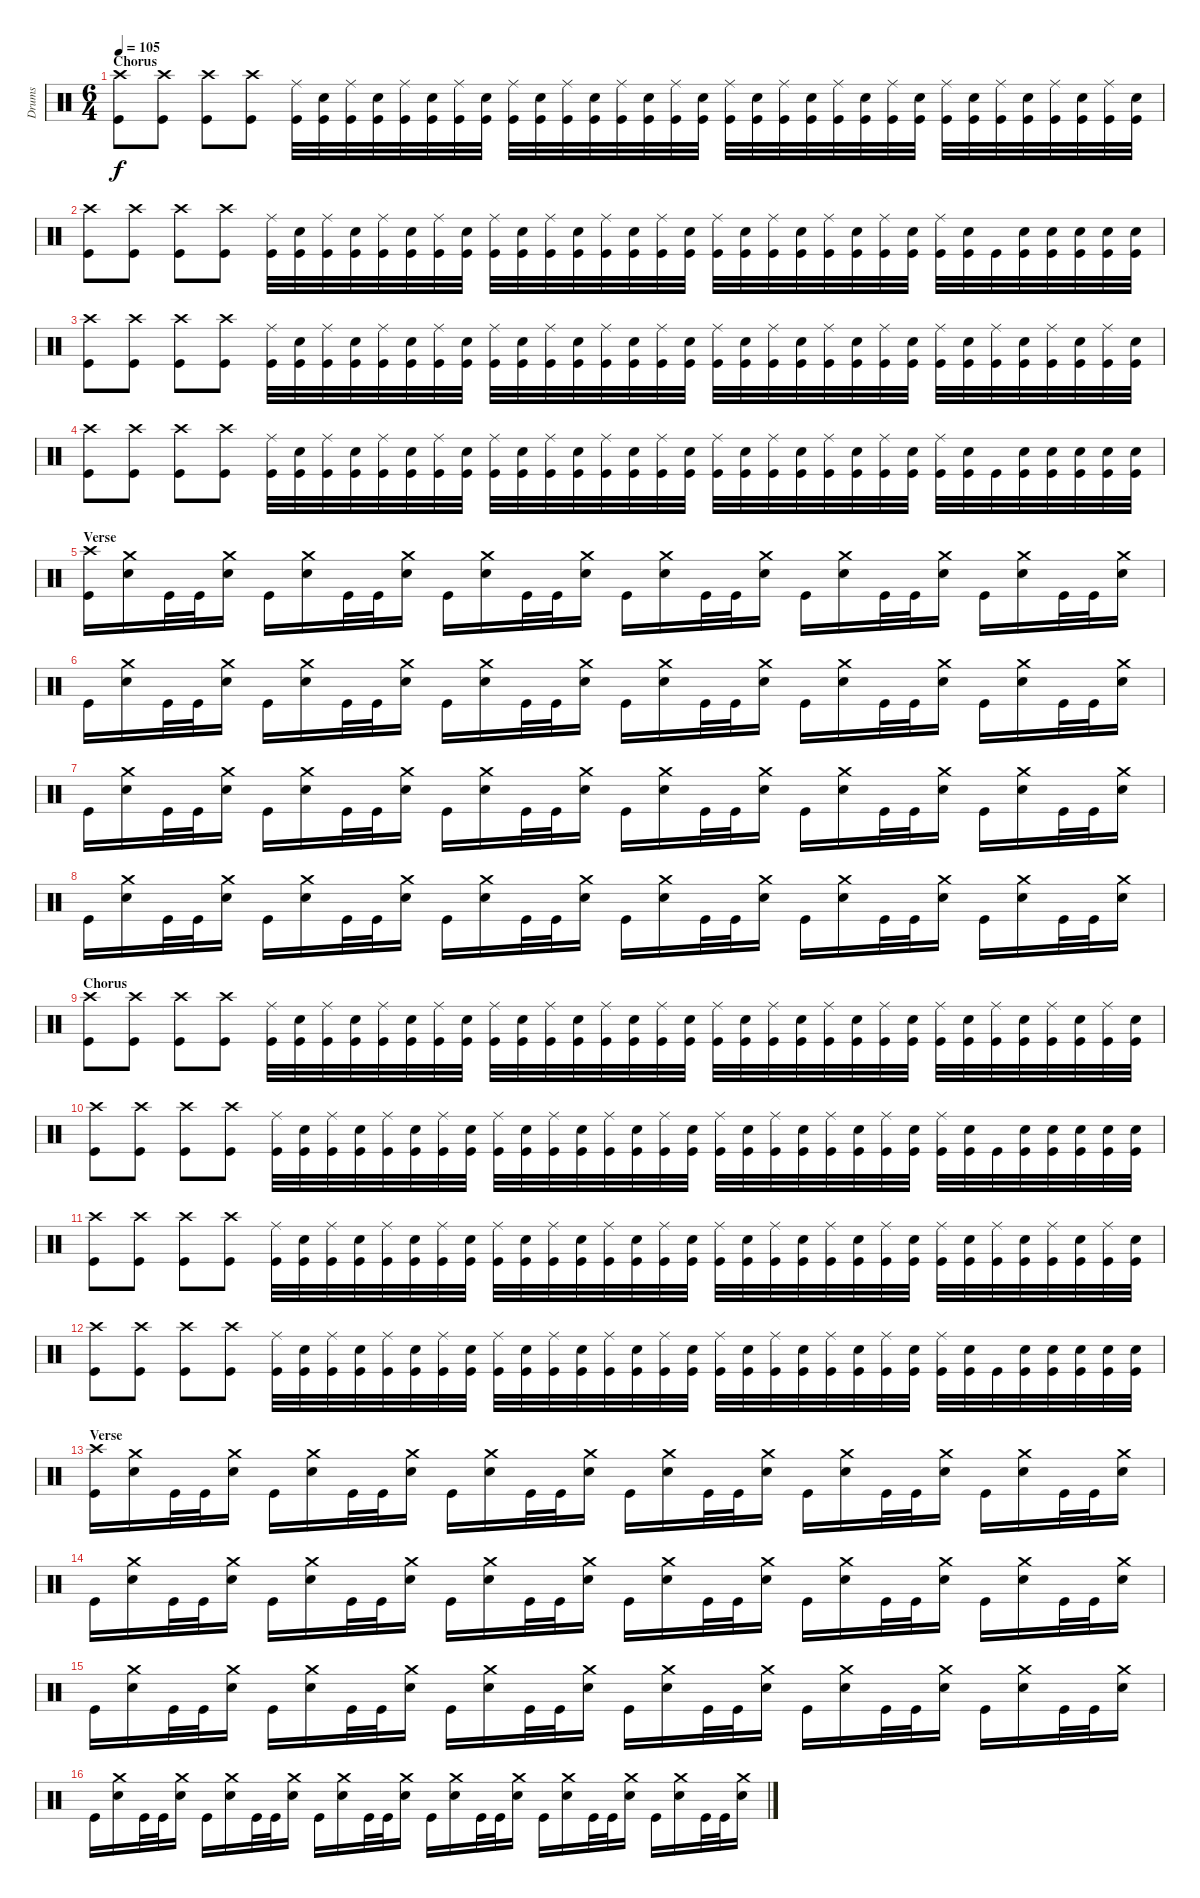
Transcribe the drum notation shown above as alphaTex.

\track ("Drums" "Drums") {instrument percussion}
\staff {score}
\articulation defaults
\ts (6 4)
\section ("" "Chorus")
\tempo 105
\clef neutral
\ks c
("Crash high (hit)" "Kick (hit)").8{dy f} ("Crash high (hit)" "Kick (hit)").8 ("Crash high (hit)" "Kick (hit)").8 ("Crash high (hit)" "Kick (hit)").8 ("Ride (middle)" "Kick (hit)").32 ("Electric Snare (hit)" "Kick (hit)").32 ("Ride (middle)" "Kick (hit)").32 ("Electric Snare (hit)" "Kick (hit)").32 ("Ride (middle)" "Kick (hit)").32 ("Electric Snare (hit)" "Kick (hit)").32 ("Ride (middle)" "Kick (hit)").32 ("Electric Snare (hit)" "Kick (hit)").32 ("Ride (middle)" "Kick (hit)").32 ("Electric Snare (hit)" "Kick (hit)").32 ("Ride (middle)" "Kick (hit)").32 ("Electric Snare (hit)" "Kick (hit)").32 ("Ride (middle)" "Kick (hit)").32 ("Electric Snare (hit)" "Kick (hit)").32 ("Ride (middle)" "Kick (hit)").32 ("Electric Snare (hit)" "Kick (hit)").32 ("Ride (middle)" "Kick (hit)").32 ("Electric Snare (hit)" "Kick (hit)").32 ("Ride (middle)" "Kick (hit)").32 ("Electric Snare (hit)" "Kick (hit)").32 ("Ride (middle)" "Kick (hit)").32 ("Electric Snare (hit)" "Kick (hit)").32 ("Ride (middle)" "Kick (hit)").32 ("Electric Snare (hit)" "Kick (hit)").32 ("Ride (middle)" "Kick (hit)").32 ("Electric Snare (hit)" "Kick (hit)").32 ("Ride (middle)" "Kick (hit)").32 ("Electric Snare (hit)" "Kick (hit)").32 ("Ride (middle)" "Kick (hit)").32 ("Electric Snare (hit)" "Kick (hit)").32 ("Ride (middle)" "Kick (hit)").32 ("Electric Snare (hit)" "Kick (hit)").32 |
("Crash high (hit)" "Kick (hit)").8 ("Crash high (hit)" "Kick (hit)").8 ("Crash high (hit)" "Kick (hit)").8 ("Crash high (hit)" "Kick (hit)").8 ("Ride (middle)" "Kick (hit)").32 ("Electric Snare (hit)" "Kick (hit)").32 ("Ride (middle)" "Kick (hit)").32 ("Electric Snare (hit)" "Kick (hit)").32 ("Ride (middle)" "Kick (hit)").32 ("Electric Snare (hit)" "Kick (hit)").32 ("Ride (middle)" "Kick (hit)").32 ("Electric Snare (hit)" "Kick (hit)").32 ("Ride (middle)" "Kick (hit)").32 ("Electric Snare (hit)" "Kick (hit)").32 ("Ride (middle)" "Kick (hit)").32 ("Electric Snare (hit)" "Kick (hit)").32 ("Ride (middle)" "Kick (hit)").32 ("Electric Snare (hit)" "Kick (hit)").32 ("Ride (middle)" "Kick (hit)").32 ("Electric Snare (hit)" "Kick (hit)").32 ("Ride (middle)" "Kick (hit)").32 ("Electric Snare (hit)" "Kick (hit)").32 ("Ride (middle)" "Kick (hit)").32 ("Electric Snare (hit)" "Kick (hit)").32 ("Ride (middle)" "Kick (hit)").32 ("Electric Snare (hit)" "Kick (hit)").32 ("Ride (middle)" "Kick (hit)").32 ("Electric Snare (hit)" "Kick (hit)").32 ("Ride (middle)" "Kick (hit)").32 ("Electric Snare (hit)" "Kick (hit)").32 "Kick (hit)".32 ("Electric Snare (hit)" "Kick (hit)").32 ("Electric Snare (hit)" "Kick (hit)").32 ("Electric Snare (hit)" "Kick (hit)").32 ("Electric Snare (hit)" "Kick (hit)").32 ("Electric Snare (hit)" "Kick (hit)").32 |
("Crash high (hit)" "Kick (hit)").8 ("Crash high (hit)" "Kick (hit)").8 ("Crash high (hit)" "Kick (hit)").8 ("Crash high (hit)" "Kick (hit)").8 ("Ride (middle)" "Kick (hit)").32 ("Electric Snare (hit)" "Kick (hit)").32 ("Ride (middle)" "Kick (hit)").32 ("Electric Snare (hit)" "Kick (hit)").32 ("Ride (middle)" "Kick (hit)").32 ("Electric Snare (hit)" "Kick (hit)").32 ("Ride (middle)" "Kick (hit)").32 ("Electric Snare (hit)" "Kick (hit)").32 ("Ride (middle)" "Kick (hit)").32 ("Electric Snare (hit)" "Kick (hit)").32 ("Ride (middle)" "Kick (hit)").32 ("Electric Snare (hit)" "Kick (hit)").32 ("Ride (middle)" "Kick (hit)").32 ("Electric Snare (hit)" "Kick (hit)").32 ("Ride (middle)" "Kick (hit)").32 ("Electric Snare (hit)" "Kick (hit)").32 ("Ride (middle)" "Kick (hit)").32 ("Electric Snare (hit)" "Kick (hit)").32 ("Ride (middle)" "Kick (hit)").32 ("Electric Snare (hit)" "Kick (hit)").32 ("Ride (middle)" "Kick (hit)").32 ("Electric Snare (hit)" "Kick (hit)").32 ("Ride (middle)" "Kick (hit)").32 ("Electric Snare (hit)" "Kick (hit)").32 ("Ride (middle)" "Kick (hit)").32 ("Electric Snare (hit)" "Kick (hit)").32 ("Ride (middle)" "Kick (hit)").32 ("Electric Snare (hit)" "Kick (hit)").32 ("Ride (middle)" "Kick (hit)").32 ("Electric Snare (hit)" "Kick (hit)").32 ("Ride (middle)" "Kick (hit)").32 ("Electric Snare (hit)" "Kick (hit)").32 |
("Crash high (hit)" "Kick (hit)").8 ("Crash high (hit)" "Kick (hit)").8 ("Crash high (hit)" "Kick (hit)").8 ("Crash high (hit)" "Kick (hit)").8 ("Ride (middle)" "Kick (hit)").32 ("Electric Snare (hit)" "Kick (hit)").32 ("Ride (middle)" "Kick (hit)").32 ("Electric Snare (hit)" "Kick (hit)").32 ("Ride (middle)" "Kick (hit)").32 ("Electric Snare (hit)" "Kick (hit)").32 ("Ride (middle)" "Kick (hit)").32 ("Electric Snare (hit)" "Kick (hit)").32 ("Ride (middle)" "Kick (hit)").32 ("Electric Snare (hit)" "Kick (hit)").32 ("Ride (middle)" "Kick (hit)").32 ("Electric Snare (hit)" "Kick (hit)").32 ("Ride (middle)" "Kick (hit)").32 ("Electric Snare (hit)" "Kick (hit)").32 ("Ride (middle)" "Kick (hit)").32 ("Electric Snare (hit)" "Kick (hit)").32 ("Ride (middle)" "Kick (hit)").32 ("Electric Snare (hit)" "Kick (hit)").32 ("Ride (middle)" "Kick (hit)").32 ("Electric Snare (hit)" "Kick (hit)").32 ("Ride (middle)" "Kick (hit)").32 ("Electric Snare (hit)" "Kick (hit)").32 ("Ride (middle)" "Kick (hit)").32 ("Electric Snare (hit)" "Kick (hit)").32 ("Ride (middle)" "Kick (hit)").32 ("Electric Snare (hit)" "Kick (hit)").32 "Kick (hit)".32 ("Electric Snare (hit)" "Kick (hit)").32 ("Electric Snare (hit)" "Kick (hit)").32 ("Electric Snare (hit)" "Kick (hit)").32 ("Electric Snare (hit)" "Kick (hit)").32 ("Electric Snare (hit)" "Kick (hit)").32 |
\section ("" "Verse ")
("Crash high (hit)" "Kick (hit)").16 ("Crash medium (hit)" "Electric Snare (hit)").16 "Kick (hit)".32 "Kick (hit)".32 ("Crash medium (hit)" "Electric Snare (hit)").16 "Kick (hit)".16 ("Crash medium (hit)" "Electric Snare (hit)").16 "Kick (hit)".32 "Kick (hit)".32 ("Crash medium (hit)" "Electric Snare (hit)").16 "Kick (hit)".16 ("Crash medium (hit)" "Electric Snare (hit)").16 "Kick (hit)".32 "Kick (hit)".32 ("Crash medium (hit)" "Electric Snare (hit)").16 "Kick (hit)".16 ("Crash medium (hit)" "Electric Snare (hit)").16 "Kick (hit)".32 "Kick (hit)".32 ("Crash medium (hit)" "Electric Snare (hit)").16 "Kick (hit)".16 ("Crash medium (hit)" "Electric Snare (hit)").16 "Kick (hit)".32 "Kick (hit)".32 ("Crash medium (hit)" "Electric Snare (hit)").16 "Kick (hit)".16 ("Crash medium (hit)" "Electric Snare (hit)").16 "Kick (hit)".32 "Kick (hit)".32 ("Crash medium (hit)" "Electric Snare (hit)").16 |
"Kick (hit)".16 ("Crash medium (hit)" "Electric Snare (hit)").16 "Kick (hit)".32 "Kick (hit)".32 ("Crash medium (hit)" "Electric Snare (hit)").16 "Kick (hit)".16 ("Crash medium (hit)" "Electric Snare (hit)").16 "Kick (hit)".32 "Kick (hit)".32 ("Crash medium (hit)" "Electric Snare (hit)").16 "Kick (hit)".16 ("Crash medium (hit)" "Electric Snare (hit)").16 "Kick (hit)".32 "Kick (hit)".32 ("Crash medium (hit)" "Electric Snare (hit)").16 "Kick (hit)".16 ("Crash medium (hit)" "Electric Snare (hit)").16 "Kick (hit)".32 "Kick (hit)".32 ("Crash medium (hit)" "Electric Snare (hit)").16 "Kick (hit)".16 ("Crash medium (hit)" "Electric Snare (hit)").16 "Kick (hit)".32 "Kick (hit)".32 ("Crash medium (hit)" "Electric Snare (hit)").16 "Kick (hit)".16 ("Crash medium (hit)" "Electric Snare (hit)").16 "Kick (hit)".32 "Kick (hit)".32 ("Crash medium (hit)" "Electric Snare (hit)").16 |
"Kick (hit)".16 ("Crash medium (hit)" "Electric Snare (hit)").16 "Kick (hit)".32 "Kick (hit)".32 ("Crash medium (hit)" "Electric Snare (hit)").16 "Kick (hit)".16 ("Crash medium (hit)" "Electric Snare (hit)").16 "Kick (hit)".32 "Kick (hit)".32 ("Crash medium (hit)" "Electric Snare (hit)").16 "Kick (hit)".16 ("Crash medium (hit)" "Electric Snare (hit)").16 "Kick (hit)".32 "Kick (hit)".32 ("Crash medium (hit)" "Electric Snare (hit)").16 "Kick (hit)".16 ("Crash medium (hit)" "Electric Snare (hit)").16 "Kick (hit)".32 "Kick (hit)".32 ("Crash medium (hit)" "Electric Snare (hit)").16 "Kick (hit)".16 ("Crash medium (hit)" "Electric Snare (hit)").16 "Kick (hit)".32 "Kick (hit)".32 ("Crash medium (hit)" "Electric Snare (hit)").16 "Kick (hit)".16 ("Crash medium (hit)" "Electric Snare (hit)").16 "Kick (hit)".32 "Kick (hit)".32 ("Crash medium (hit)" "Electric Snare (hit)").16 |
"Kick (hit)".16 ("Crash medium (hit)" "Electric Snare (hit)").16 "Kick (hit)".32 "Kick (hit)".32 ("Crash medium (hit)" "Electric Snare (hit)").16 "Kick (hit)".16 ("Crash medium (hit)" "Electric Snare (hit)").16 "Kick (hit)".32 "Kick (hit)".32 ("Crash medium (hit)" "Electric Snare (hit)").16 "Kick (hit)".16 ("Crash medium (hit)" "Electric Snare (hit)").16 "Kick (hit)".32 "Kick (hit)".32 ("Crash medium (hit)" "Electric Snare (hit)").16 "Kick (hit)".16 ("Crash medium (hit)" "Electric Snare (hit)").16 "Kick (hit)".32 "Kick (hit)".32 ("Crash medium (hit)" "Electric Snare (hit)").16 "Kick (hit)".16 ("Crash medium (hit)" "Electric Snare (hit)").16 "Kick (hit)".32 "Kick (hit)".32 ("Crash medium (hit)" "Electric Snare (hit)").16 "Kick (hit)".16 ("Crash medium (hit)" "Electric Snare (hit)").16 "Kick (hit)".32 "Kick (hit)".32 ("Crash medium (hit)" "Electric Snare (hit)").16 |
\section ("" "Chorus")
("Crash high (hit)" "Kick (hit)").8 ("Crash high (hit)" "Kick (hit)").8 ("Crash high (hit)" "Kick (hit)").8 ("Crash high (hit)" "Kick (hit)").8 ("Ride (middle)" "Kick (hit)").32 ("Electric Snare (hit)" "Kick (hit)").32 ("Ride (middle)" "Kick (hit)").32 ("Electric Snare (hit)" "Kick (hit)").32 ("Ride (middle)" "Kick (hit)").32 ("Electric Snare (hit)" "Kick (hit)").32 ("Ride (middle)" "Kick (hit)").32 ("Electric Snare (hit)" "Kick (hit)").32 ("Ride (middle)" "Kick (hit)").32 ("Electric Snare (hit)" "Kick (hit)").32 ("Ride (middle)" "Kick (hit)").32 ("Electric Snare (hit)" "Kick (hit)").32 ("Ride (middle)" "Kick (hit)").32 ("Electric Snare (hit)" "Kick (hit)").32 ("Ride (middle)" "Kick (hit)").32 ("Electric Snare (hit)" "Kick (hit)").32 ("Ride (middle)" "Kick (hit)").32 ("Electric Snare (hit)" "Kick (hit)").32 ("Ride (middle)" "Kick (hit)").32 ("Electric Snare (hit)" "Kick (hit)").32 ("Ride (middle)" "Kick (hit)").32 ("Electric Snare (hit)" "Kick (hit)").32 ("Ride (middle)" "Kick (hit)").32 ("Electric Snare (hit)" "Kick (hit)").32 ("Ride (middle)" "Kick (hit)").32 ("Electric Snare (hit)" "Kick (hit)").32 ("Ride (middle)" "Kick (hit)").32 ("Electric Snare (hit)" "Kick (hit)").32 ("Ride (middle)" "Kick (hit)").32 ("Electric Snare (hit)" "Kick (hit)").32 ("Ride (middle)" "Kick (hit)").32 ("Electric Snare (hit)" "Kick (hit)").32 |
("Crash high (hit)" "Kick (hit)").8 ("Crash high (hit)" "Kick (hit)").8 ("Crash high (hit)" "Kick (hit)").8 ("Crash high (hit)" "Kick (hit)").8 ("Ride (middle)" "Kick (hit)").32 ("Electric Snare (hit)" "Kick (hit)").32 ("Ride (middle)" "Kick (hit)").32 ("Electric Snare (hit)" "Kick (hit)").32 ("Ride (middle)" "Kick (hit)").32 ("Electric Snare (hit)" "Kick (hit)").32 ("Ride (middle)" "Kick (hit)").32 ("Electric Snare (hit)" "Kick (hit)").32 ("Ride (middle)" "Kick (hit)").32 ("Electric Snare (hit)" "Kick (hit)").32 ("Ride (middle)" "Kick (hit)").32 ("Electric Snare (hit)" "Kick (hit)").32 ("Ride (middle)" "Kick (hit)").32 ("Electric Snare (hit)" "Kick (hit)").32 ("Ride (middle)" "Kick (hit)").32 ("Electric Snare (hit)" "Kick (hit)").32 ("Ride (middle)" "Kick (hit)").32 ("Electric Snare (hit)" "Kick (hit)").32 ("Ride (middle)" "Kick (hit)").32 ("Electric Snare (hit)" "Kick (hit)").32 ("Ride (middle)" "Kick (hit)").32 ("Electric Snare (hit)" "Kick (hit)").32 ("Ride (middle)" "Kick (hit)").32 ("Electric Snare (hit)" "Kick (hit)").32 ("Ride (middle)" "Kick (hit)").32 ("Electric Snare (hit)" "Kick (hit)").32 "Kick (hit)".32 ("Electric Snare (hit)" "Kick (hit)").32 ("Electric Snare (hit)" "Kick (hit)").32 ("Electric Snare (hit)" "Kick (hit)").32 ("Electric Snare (hit)" "Kick (hit)").32 ("Electric Snare (hit)" "Kick (hit)").32 |
("Crash high (hit)" "Kick (hit)").8 ("Crash high (hit)" "Kick (hit)").8 ("Crash high (hit)" "Kick (hit)").8 ("Crash high (hit)" "Kick (hit)").8 ("Ride (middle)" "Kick (hit)").32 ("Electric Snare (hit)" "Kick (hit)").32 ("Ride (middle)" "Kick (hit)").32 ("Electric Snare (hit)" "Kick (hit)").32 ("Ride (middle)" "Kick (hit)").32 ("Electric Snare (hit)" "Kick (hit)").32 ("Ride (middle)" "Kick (hit)").32 ("Electric Snare (hit)" "Kick (hit)").32 ("Ride (middle)" "Kick (hit)").32 ("Electric Snare (hit)" "Kick (hit)").32 ("Ride (middle)" "Kick (hit)").32 ("Electric Snare (hit)" "Kick (hit)").32 ("Ride (middle)" "Kick (hit)").32 ("Electric Snare (hit)" "Kick (hit)").32 ("Ride (middle)" "Kick (hit)").32 ("Electric Snare (hit)" "Kick (hit)").32 ("Ride (middle)" "Kick (hit)").32 ("Electric Snare (hit)" "Kick (hit)").32 ("Ride (middle)" "Kick (hit)").32 ("Electric Snare (hit)" "Kick (hit)").32 ("Ride (middle)" "Kick (hit)").32 ("Electric Snare (hit)" "Kick (hit)").32 ("Ride (middle)" "Kick (hit)").32 ("Electric Snare (hit)" "Kick (hit)").32 ("Ride (middle)" "Kick (hit)").32 ("Electric Snare (hit)" "Kick (hit)").32 ("Ride (middle)" "Kick (hit)").32 ("Electric Snare (hit)" "Kick (hit)").32 ("Ride (middle)" "Kick (hit)").32 ("Electric Snare (hit)" "Kick (hit)").32 ("Ride (middle)" "Kick (hit)").32 ("Electric Snare (hit)" "Kick (hit)").32 |
("Crash high (hit)" "Kick (hit)").8 ("Crash high (hit)" "Kick (hit)").8 ("Crash high (hit)" "Kick (hit)").8 ("Crash high (hit)" "Kick (hit)").8 ("Ride (middle)" "Kick (hit)").32 ("Electric Snare (hit)" "Kick (hit)").32 ("Ride (middle)" "Kick (hit)").32 ("Electric Snare (hit)" "Kick (hit)").32 ("Ride (middle)" "Kick (hit)").32 ("Electric Snare (hit)" "Kick (hit)").32 ("Ride (middle)" "Kick (hit)").32 ("Electric Snare (hit)" "Kick (hit)").32 ("Ride (middle)" "Kick (hit)").32 ("Electric Snare (hit)" "Kick (hit)").32 ("Ride (middle)" "Kick (hit)").32 ("Electric Snare (hit)" "Kick (hit)").32 ("Ride (middle)" "Kick (hit)").32 ("Electric Snare (hit)" "Kick (hit)").32 ("Ride (middle)" "Kick (hit)").32 ("Electric Snare (hit)" "Kick (hit)").32 ("Ride (middle)" "Kick (hit)").32 ("Electric Snare (hit)" "Kick (hit)").32 ("Ride (middle)" "Kick (hit)").32 ("Electric Snare (hit)" "Kick (hit)").32 ("Ride (middle)" "Kick (hit)").32 ("Electric Snare (hit)" "Kick (hit)").32 ("Ride (middle)" "Kick (hit)").32 ("Electric Snare (hit)" "Kick (hit)").32 ("Ride (middle)" "Kick (hit)").32 ("Electric Snare (hit)" "Kick (hit)").32 "Kick (hit)".32 ("Electric Snare (hit)" "Kick (hit)").32 ("Electric Snare (hit)" "Kick (hit)").32 ("Electric Snare (hit)" "Kick (hit)").32 ("Electric Snare (hit)" "Kick (hit)").32 ("Electric Snare (hit)" "Kick (hit)").32 |
\section ("" "Verse")
("Crash high (hit)" "Kick (hit)").16 ("Crash medium (hit)" "Electric Snare (hit)").16 "Kick (hit)".32 "Kick (hit)".32 ("Crash medium (hit)" "Electric Snare (hit)").16 "Kick (hit)".16 ("Crash medium (hit)" "Electric Snare (hit)").16 "Kick (hit)".32 "Kick (hit)".32 ("Crash medium (hit)" "Electric Snare (hit)").16 "Kick (hit)".16 ("Crash medium (hit)" "Electric Snare (hit)").16 "Kick (hit)".32 "Kick (hit)".32 ("Crash medium (hit)" "Electric Snare (hit)").16 "Kick (hit)".16 ("Crash medium (hit)" "Electric Snare (hit)").16 "Kick (hit)".32 "Kick (hit)".32 ("Crash medium (hit)" "Electric Snare (hit)").16 "Kick (hit)".16 ("Crash medium (hit)" "Electric Snare (hit)").16 "Kick (hit)".32 "Kick (hit)".32 ("Crash medium (hit)" "Electric Snare (hit)").16 "Kick (hit)".16 ("Crash medium (hit)" "Electric Snare (hit)").16 "Kick (hit)".32 "Kick (hit)".32 ("Crash medium (hit)" "Electric Snare (hit)").16 |
"Kick (hit)".16 ("Crash medium (hit)" "Electric Snare (hit)").16 "Kick (hit)".32 "Kick (hit)".32 ("Crash medium (hit)" "Electric Snare (hit)").16 "Kick (hit)".16 ("Crash medium (hit)" "Electric Snare (hit)").16 "Kick (hit)".32 "Kick (hit)".32 ("Crash medium (hit)" "Electric Snare (hit)").16 "Kick (hit)".16 ("Crash medium (hit)" "Electric Snare (hit)").16 "Kick (hit)".32 "Kick (hit)".32 ("Crash medium (hit)" "Electric Snare (hit)").16 "Kick (hit)".16 ("Crash medium (hit)" "Electric Snare (hit)").16 "Kick (hit)".32 "Kick (hit)".32 ("Crash medium (hit)" "Electric Snare (hit)").16 "Kick (hit)".16 ("Crash medium (hit)" "Electric Snare (hit)").16 "Kick (hit)".32 "Kick (hit)".32 ("Crash medium (hit)" "Electric Snare (hit)").16 "Kick (hit)".16 ("Crash medium (hit)" "Electric Snare (hit)").16 "Kick (hit)".32 "Kick (hit)".32 ("Crash medium (hit)" "Electric Snare (hit)").16 |
"Kick (hit)".16 ("Crash medium (hit)" "Electric Snare (hit)").16 "Kick (hit)".32 "Kick (hit)".32 ("Crash medium (hit)" "Electric Snare (hit)").16 "Kick (hit)".16 ("Crash medium (hit)" "Electric Snare (hit)").16 "Kick (hit)".32 "Kick (hit)".32 ("Crash medium (hit)" "Electric Snare (hit)").16 "Kick (hit)".16 ("Crash medium (hit)" "Electric Snare (hit)").16 "Kick (hit)".32 "Kick (hit)".32 ("Crash medium (hit)" "Electric Snare (hit)").16 "Kick (hit)".16 ("Crash medium (hit)" "Electric Snare (hit)").16 "Kick (hit)".32 "Kick (hit)".32 ("Crash medium (hit)" "Electric Snare (hit)").16 "Kick (hit)".16 ("Crash medium (hit)" "Electric Snare (hit)").16 "Kick (hit)".32 "Kick (hit)".32 ("Crash medium (hit)" "Electric Snare (hit)").16 "Kick (hit)".16 ("Crash medium (hit)" "Electric Snare (hit)").16 "Kick (hit)".32 "Kick (hit)".32 ("Crash medium (hit)" "Electric Snare (hit)").16 |
"Kick (hit)".16 ("Crash medium (hit)" "Electric Snare (hit)").16 "Kick (hit)".32 "Kick (hit)".32 ("Crash medium (hit)" "Electric Snare (hit)").16 "Kick (hit)".16 ("Crash medium (hit)" "Electric Snare (hit)").16 "Kick (hit)".32 "Kick (hit)".32 ("Crash medium (hit)" "Electric Snare (hit)").16 "Kick (hit)".16 ("Crash medium (hit)" "Electric Snare (hit)").16 "Kick (hit)".32 "Kick (hit)".32 ("Crash medium (hit)" "Electric Snare (hit)").16 "Kick (hit)".16 ("Crash medium (hit)" "Electric Snare (hit)").16 "Kick (hit)".32 "Kick (hit)".32 ("Crash medium (hit)" "Electric Snare (hit)").16 "Kick (hit)".16 ("Crash medium (hit)" "Electric Snare (hit)").16 "Kick (hit)".32 "Kick (hit)".32 ("Crash medium (hit)" "Electric Snare (hit)").16 "Kick (hit)".16 ("Crash medium (hit)" "Electric Snare (hit)").16 "Kick (hit)".32 "Kick (hit)".32 ("Crash medium (hit)" "Electric Snare (hit)").16
